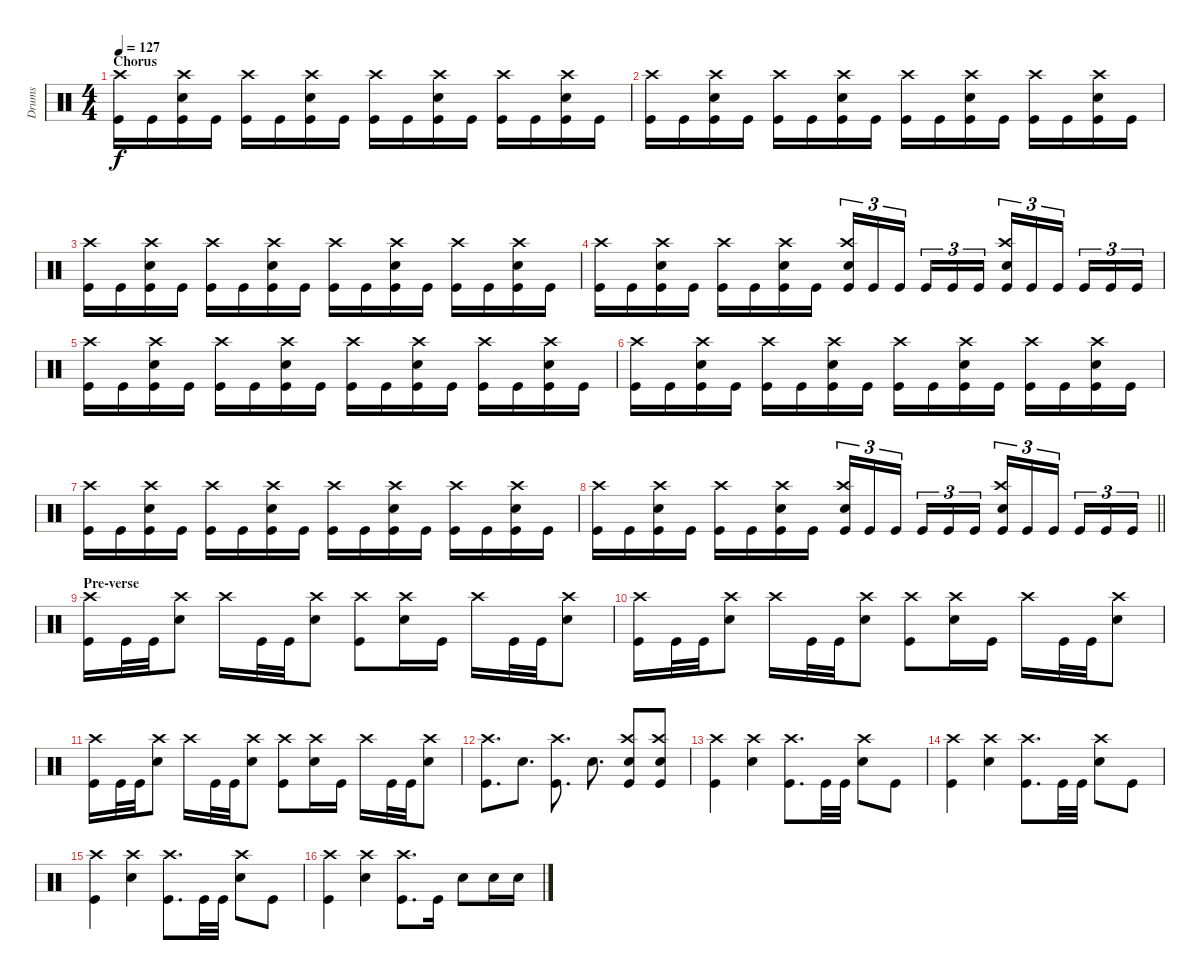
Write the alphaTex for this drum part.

\track ("Drums" "Drums") {instrument percussion}
\staff {score}
\articulation defaults
\ts (4 4)
\section ("" "Chorus")
\tempo 127
\clef neutral
\ks c
("Kick (hit)" "Crash high (hit)").16{dy f} "Kick (hit)".16 ("Snare (hit) 2" "Crash high (hit)" "Kick (hit)").16 "Kick (hit)".16 ("Kick (hit)" "Crash high (hit)").16 "Kick (hit)".16 ("Snare (hit) 2" "Crash high (hit)" "Kick (hit)").16 "Kick (hit)".16 ("Kick (hit)" "Crash high (hit)").16 "Kick (hit)".16 ("Snare (hit) 2" "Crash high (hit)" "Kick (hit)").16 "Kick (hit)".16 ("Kick (hit)" "Crash high (hit)").16 "Kick (hit)".16 ("Snare (hit) 2" "Crash high (hit)" "Kick (hit)").16 "Kick (hit)".16 |
("Kick (hit)" "Crash high (hit)").16 "Kick (hit)".16 ("Snare (hit) 2" "Crash high (hit)" "Kick (hit)").16 "Kick (hit)".16 ("Kick (hit)" "Crash high (hit)").16 "Kick (hit)".16 ("Snare (hit) 2" "Crash high (hit)" "Kick (hit)").16 "Kick (hit)".16 ("Kick (hit)" "Crash high (hit)").16 "Kick (hit)".16 ("Snare (hit) 2" "Crash high (hit)" "Kick (hit)").16 "Kick (hit)".16 ("Kick (hit)" "Crash high (hit)").16 "Kick (hit)".16 ("Snare (hit) 2" "Crash high (hit)" "Kick (hit)").16 "Kick (hit)".16 |
("Kick (hit)" "Crash high (hit)").16 "Kick (hit)".16 ("Snare (hit) 2" "Crash high (hit)" "Kick (hit)").16 "Kick (hit)".16 ("Kick (hit)" "Crash high (hit)").16 "Kick (hit)".16 ("Snare (hit) 2" "Crash high (hit)" "Kick (hit)").16 "Kick (hit)".16 ("Kick (hit)" "Crash high (hit)").16 "Kick (hit)".16 ("Snare (hit) 2" "Crash high (hit)" "Kick (hit)").16 "Kick (hit)".16 ("Kick (hit)" "Crash high (hit)").16 "Kick (hit)".16 ("Snare (hit) 2" "Crash high (hit)" "Kick (hit)").16 "Kick (hit)".16 |
("Kick (hit)" "Crash high (hit)").16 "Kick (hit)".16 ("Snare (hit) 2" "Crash high (hit)" "Kick (hit)").16 "Kick (hit)".16 ("Kick (hit)" "Crash high (hit)").16 "Kick (hit)".16 ("Snare (hit) 2" "Crash high (hit)" "Kick (hit)").16 "Kick (hit)".16 ("Kick (hit)" "Snare (hit) 2" "Crash high (hit)").16{tu (3 2)} "Kick (hit)".16{tu (3 2)} "Kick (hit)".16{tu (3 2) beam splitsecondary} "Kick (hit)".16{tu (3 2)} "Kick (hit)".16{tu (3 2)} "Kick (hit)".16{tu (3 2)} ("Kick (hit)" "Snare (hit) 2" "Crash high (hit)").16{tu (3 2)} "Kick (hit)".16{tu (3 2)} "Kick (hit)".16{tu (3 2) beam splitsecondary} "Kick (hit)".16{tu (3 2)} "Kick (hit)".16{tu (3 2)} "Kick (hit)".16{tu (3 2)} |
("Kick (hit)" "Crash high (hit)").16 "Kick (hit)".16 ("Snare (hit) 2" "Crash high (hit)" "Kick (hit)").16 "Kick (hit)".16 ("Kick (hit)" "Crash high (hit)").16 "Kick (hit)".16 ("Snare (hit) 2" "Crash high (hit)" "Kick (hit)").16 "Kick (hit)".16 ("Kick (hit)" "Crash high (hit)").16 "Kick (hit)".16 ("Snare (hit) 2" "Crash high (hit)" "Kick (hit)").16 "Kick (hit)".16 ("Kick (hit)" "Crash high (hit)").16 "Kick (hit)".16 ("Snare (hit) 2" "Crash high (hit)" "Kick (hit)").16 "Kick (hit)".16 |
("Kick (hit)" "Crash high (hit)").16 "Kick (hit)".16 ("Snare (hit) 2" "Crash high (hit)" "Kick (hit)").16 "Kick (hit)".16 ("Kick (hit)" "Crash high (hit)").16 "Kick (hit)".16 ("Snare (hit) 2" "Crash high (hit)" "Kick (hit)").16 "Kick (hit)".16 ("Kick (hit)" "Crash high (hit)").16 "Kick (hit)".16 ("Snare (hit) 2" "Crash high (hit)" "Kick (hit)").16 "Kick (hit)".16 ("Kick (hit)" "Crash high (hit)").16 "Kick (hit)".16 ("Snare (hit) 2" "Crash high (hit)" "Kick (hit)").16 "Kick (hit)".16 |
("Kick (hit)" "Crash high (hit)").16 "Kick (hit)".16 ("Snare (hit) 2" "Crash high (hit)" "Kick (hit)").16 "Kick (hit)".16 ("Kick (hit)" "Crash high (hit)").16 "Kick (hit)".16 ("Snare (hit) 2" "Crash high (hit)" "Kick (hit)").16 "Kick (hit)".16 ("Kick (hit)" "Crash high (hit)").16 "Kick (hit)".16 ("Snare (hit) 2" "Crash high (hit)" "Kick (hit)").16 "Kick (hit)".16 ("Kick (hit)" "Crash high (hit)").16 "Kick (hit)".16 ("Snare (hit) 2" "Crash high (hit)" "Kick (hit)").16 "Kick (hit)".16 |
\barLineRight lightlight
("Kick (hit)" "Crash high (hit)").16 "Kick (hit)".16 ("Snare (hit) 2" "Crash high (hit)" "Kick (hit)").16 "Kick (hit)".16 ("Kick (hit)" "Crash high (hit)").16 "Kick (hit)".16 ("Snare (hit) 2" "Crash high (hit)" "Kick (hit)").16 "Kick (hit)".16 ("Kick (hit)" "Snare (hit) 2" "Crash high (hit)").16{tu (3 2)} "Kick (hit)".16{tu (3 2)} "Kick (hit)".16{tu (3 2) beam splitsecondary} "Kick (hit)".16{tu (3 2)} "Kick (hit)".16{tu (3 2)} "Kick (hit)".16{tu (3 2)} ("Kick (hit)" "Snare (hit) 2" "Crash high (hit)").16{tu (3 2)} "Kick (hit)".16{tu (3 2)} "Kick (hit)".16{tu (3 2) beam splitsecondary} "Kick (hit)".16{tu (3 2)} "Kick (hit)".16{tu (3 2)} "Kick (hit)".16{tu (3 2)} |
\section ("" "Pre-verse")
("Kick (hit)" "Crash high (hit)").16 "Kick (hit)".32 "Kick (hit)".32 ("Snare (hit) 2" "Crash high (hit)").8 "Crash high (hit)".16 "Kick (hit)".32 "Kick (hit)".32 ("Snare (hit) 2" "Crash high (hit)").8 ("Kick (hit)" "Crash high (hit)").8 ("Snare (hit) 2" "Crash high (hit)").16 "Kick (hit)".16 "Crash high (hit)".16 "Kick (hit)".32 "Kick (hit)".32 ("Snare (hit) 2" "Crash high (hit)").8 |
("Kick (hit)" "Crash high (hit)").16 "Kick (hit)".32 "Kick (hit)".32 ("Snare (hit) 2" "Crash high (hit)").8 "Crash high (hit)".16 "Kick (hit)".32 "Kick (hit)".32 ("Snare (hit) 2" "Crash high (hit)").8 ("Kick (hit)" "Crash high (hit)").8 ("Snare (hit) 2" "Crash high (hit)").16 "Kick (hit)".16 "Crash high (hit)".16 "Kick (hit)".32 "Kick (hit)".32 ("Snare (hit) 2" "Crash high (hit)").8 |
("Kick (hit)" "Crash high (hit)").16 "Kick (hit)".32 "Kick (hit)".32 ("Snare (hit) 2" "Crash high (hit)").8 "Crash high (hit)".16 "Kick (hit)".32 "Kick (hit)".32 ("Snare (hit) 2" "Crash high (hit)").8 ("Kick (hit)" "Crash high (hit)").8 ("Snare (hit) 2" "Crash high (hit)").16 "Kick (hit)".16 "Crash high (hit)".16 "Kick (hit)".32 "Kick (hit)".32 ("Snare (hit) 2" "Crash high (hit)").8 |
("Kick (hit)" "Crash high (hit)").8{d} "Snare (hit) 2".8{d} ("Kick (hit)" "Crash high (hit)").8{d} "Snare (hit) 2".8{d} ("Kick (hit)" "Crash high (hit)" "Snare (hit) 2").8 ("Kick (hit)" "Crash high (hit)" "Snare (hit) 2").8 |
("Kick (hit)" "Crash high (hit)").4 ("Snare (hit) 2" "Crash high (hit)").4 ("Kick (hit)" "Crash high (hit)").8{d} "Kick (hit)".32 "Kick (hit)".32 ("Snare (hit) 2" "Crash high (hit)").8 "Kick (hit)".8 |
("Kick (hit)" "Crash high (hit)").4 ("Snare (hit) 2" "Crash high (hit)").4 ("Kick (hit)" "Crash high (hit)").8{d} "Kick (hit)".32 "Kick (hit)".32 ("Snare (hit) 2" "Crash high (hit)").8 "Kick (hit)".8 |
("Kick (hit)" "Crash high (hit)").4 ("Snare (hit) 2" "Crash high (hit)").4 ("Kick (hit)" "Crash high (hit)").8{d} "Kick (hit)".32 "Kick (hit)".32 ("Snare (hit) 2" "Crash high (hit)").8 "Kick (hit)".8 |
("Kick (hit)" "Crash high (hit)").4 ("Snare (hit) 2" "Crash high (hit)").4 ("Kick (hit)" "Crash high (hit)").8{d} "Kick (hit)".16 "Snare (hit) 2".8 "Snare (hit) 2".16 "Snare (hit) 2".16
